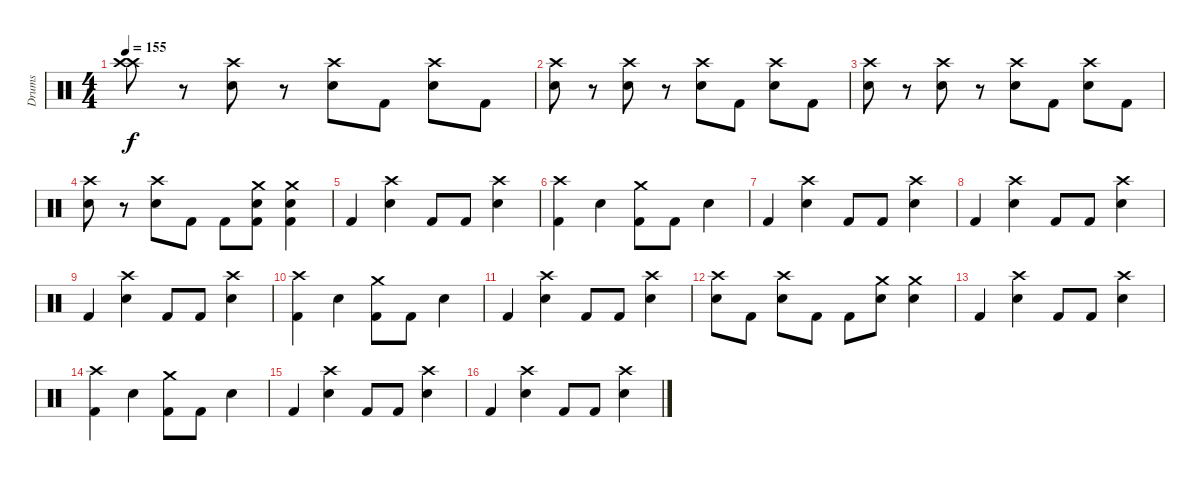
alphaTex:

\track ("Drums" "Drums") {instrument percussion}
\staff {score}
\articulation defaults
\ts (4 4)
\tempo 155
\clef neutral
\ks c
("Crash high (hit)" "Crash high (hit)").8{dy f} r.8 ("Snare (hit) 2" "Crash high (hit)").8 r.8 ("Snare (hit) 2" "Crash high (hit)").8 "Kick (hit) 2".8 ("Snare (hit) 2" "Crash high (hit)").8 "Kick (hit) 2".8 |
("Snare (hit) 2" "Crash high (hit)").8 r.8 ("Snare (hit) 2" "Crash high (hit)").8 r.8 ("Snare (hit) 2" "Crash high (hit)").8 "Kick (hit) 2".8 ("Snare (hit) 2" "Crash high (hit)").8 "Kick (hit) 2".8 |
("Snare (hit) 2" "Crash high (hit)").8 r.8 ("Snare (hit) 2" "Crash high (hit)").8 r.8 ("Snare (hit) 2" "Crash high (hit)").8 "Kick (hit) 2".8 ("Snare (hit) 2" "Crash high (hit)").8 "Kick (hit) 2".8 |
("Snare (hit) 2" "Crash high (hit)").8 r.8 ("Snare (hit) 2" "Crash high (hit)").8 "Kick (hit) 2".8 "Kick (hit) 2".8 ("Crash medium (hit)" "Snare (hit) 2" "Kick (hit) 2").8 ("Crash medium (hit)" "Snare (hit) 2" "Kick (hit) 2").4 |
"Kick (hit) 2".4 ("Crash high (hit)" "Snare (hit) 2").4 "Kick (hit) 2".8 "Kick (hit) 2".8 ("Crash high (hit)" "Snare (hit) 2").4 |
("Crash high (hit)" "Kick (hit) 2").4 "Snare (hit) 2".4 ("Crash medium (hit)" "Kick (hit) 2").8 "Kick (hit) 2".8 "Snare (hit) 2".4 |
"Kick (hit) 2".4 ("Crash high (hit)" "Snare (hit) 2").4 "Kick (hit) 2".8 "Kick (hit) 2".8 ("Crash high (hit)" "Snare (hit) 2").4 |
"Kick (hit) 2".4 ("Crash high (hit)" "Snare (hit) 2").4 "Kick (hit) 2".8 "Kick (hit) 2".8 ("Crash high (hit)" "Snare (hit) 2").4 |
"Kick (hit) 2".4 ("Crash high (hit)" "Snare (hit) 2").4 "Kick (hit) 2".8 "Kick (hit) 2".8 ("Crash high (hit)" "Snare (hit) 2").4 |
("Crash high (hit)" "Kick (hit) 2").4 "Snare (hit) 2".4 ("Crash medium (hit)" "Kick (hit) 2").8 "Kick (hit) 2".8 "Snare (hit) 2".4 |
"Kick (hit) 2".4 ("Crash high (hit)" "Snare (hit) 2").4 "Kick (hit) 2".8 "Kick (hit) 2".8 ("Crash high (hit)" "Snare (hit) 2").4 |
("Snare (hit) 2" "Crash high (hit)").8 "Kick (hit) 2".8 ("Snare (hit) 2" "Crash high (hit)").8 "Kick (hit) 2".8 "Kick (hit) 2".8 ("Crash medium (hit)" "Snare (hit) 2").8 ("Crash medium (hit)" "Snare (hit) 2").4 |
"Kick (hit) 2".4 ("Crash high (hit)" "Snare (hit) 2").4 "Kick (hit) 2".8 "Kick (hit) 2".8 ("Crash high (hit)" "Snare (hit) 2").4 |
("Crash high (hit)" "Kick (hit) 2").4 "Snare (hit) 2".4 ("Crash medium (hit)" "Kick (hit) 2").8 "Kick (hit) 2".8 "Snare (hit) 2".4 |
"Kick (hit) 2".4 ("Crash high (hit)" "Snare (hit) 2").4 "Kick (hit) 2".8 "Kick (hit) 2".8 ("Crash high (hit)" "Snare (hit) 2").4 |
"Kick (hit) 2".4 ("Crash high (hit)" "Snare (hit) 2").4 "Kick (hit) 2".8 "Kick (hit) 2".8 ("Crash high (hit)" "Snare (hit) 2").4
